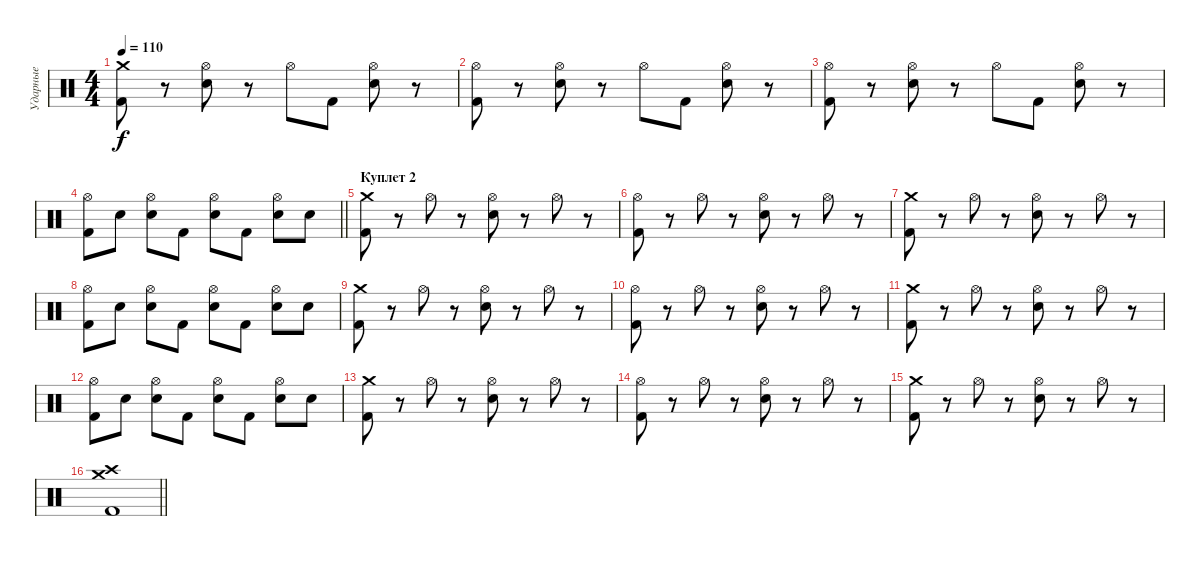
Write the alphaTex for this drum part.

\track ("Ударные" "Ударные") {instrument percussion}
\staff {score}
\articulation defaults
\ts (4 4)
\tempo 110
\clef neutral
\ks c
("Crash medium (hit)" "Kick (hit) 2").8{dy f} r.8 ("Hi-Hat (open)" "Snare (hit) 2").8 r.8 "Hi-Hat (open)".8 "Kick (hit) 2".8 ("Hi-Hat (open)" "Snare (hit) 2").8 r.8 |
("Hi-Hat (open)" "Kick (hit) 2").8 r.8 ("Hi-Hat (open)" "Snare (hit) 2").8 r.8 "Hi-Hat (open)".8 "Kick (hit) 2".8 ("Hi-Hat (open)" "Snare (hit) 2").8 r.8 |
("Hi-Hat (open)" "Kick (hit) 2").8 r.8 ("Hi-Hat (open)" "Snare (hit) 2").8 r.8 "Hi-Hat (open)".8 "Kick (hit) 2".8 ("Hi-Hat (open)" "Snare (hit) 2").8 r.8 |
\barLineRight lightlight
("Hi-Hat (open)" "Kick (hit) 2").8 "Snare (hit) 2".8 ("Hi-Hat (open)" "Snare (hit) 2").8 "Kick (hit) 2".8 ("Hi-Hat (open)" "Snare (hit) 2").8 "Kick (hit) 2".8 ("Hi-Hat (open)" "Snare (hit) 2").8 "Snare (hit) 2".8 |
\section ("" "Куплет 2")
("Crash medium (hit)" "Kick (hit) 2").8 r.8 "Hi-Hat (open)".8 r.8 ("Hi-Hat (open)" "Snare (hit) 2").8 r.8 "Hi-Hat (open)".8 r.8 |
("Hi-Hat (open)" "Kick (hit) 2").8 r.8 "Hi-Hat (open)".8 r.8 ("Hi-Hat (open)" "Snare (hit) 2").8 r.8 "Hi-Hat (open)".8 r.8 |
("Crash medium (hit)" "Kick (hit) 2").8 r.8 "Hi-Hat (open)".8 r.8 ("Hi-Hat (open)" "Snare (hit) 2").8 r.8 "Hi-Hat (open)".8 r.8 |
("Hi-Hat (open)" "Kick (hit) 2").8 "Snare (hit) 2".8 ("Hi-Hat (open)" "Snare (hit) 2").8 "Kick (hit) 2".8 ("Hi-Hat (open)" "Snare (hit) 2").8 "Kick (hit) 2".8 ("Hi-Hat (open)" "Snare (hit) 2").8 "Snare (hit) 2".8 |
("Crash medium (hit)" "Kick (hit) 2").8 r.8 "Hi-Hat (open)".8 r.8 ("Hi-Hat (open)" "Snare (hit) 2").8 r.8 "Hi-Hat (open)".8 r.8 |
("Hi-Hat (open)" "Kick (hit) 2").8 r.8 "Hi-Hat (open)".8 r.8 ("Hi-Hat (open)" "Snare (hit) 2").8 r.8 "Hi-Hat (open)".8 r.8 |
("Crash medium (hit)" "Kick (hit) 2").8 r.8 "Hi-Hat (open)".8 r.8 ("Hi-Hat (open)" "Snare (hit) 2").8 r.8 "Hi-Hat (open)".8 r.8 |
("Hi-Hat (open)" "Kick (hit) 2").8 "Snare (hit) 2".8 ("Hi-Hat (open)" "Snare (hit) 2").8 "Kick (hit) 2".8 ("Hi-Hat (open)" "Snare (hit) 2").8 "Kick (hit) 2".8 ("Hi-Hat (open)" "Snare (hit) 2").8 "Snare (hit) 2".8 |
("Crash medium (hit)" "Kick (hit) 2").8 r.8 "Hi-Hat (open)".8 r.8 ("Hi-Hat (open)" "Snare (hit) 2").8 r.8 "Hi-Hat (open)".8 r.8 |
("Hi-Hat (open)" "Kick (hit) 2").8 r.8 "Hi-Hat (open)".8 r.8 ("Hi-Hat (open)" "Snare (hit) 2").8 r.8 "Hi-Hat (open)".8 r.8 |
("Crash medium (hit)" "Kick (hit) 2").8 r.8 "Hi-Hat (open)".8 r.8 ("Hi-Hat (open)" "Snare (hit) 2").8 r.8 "Hi-Hat (open)".8 r.8 |
\barLineRight lightlight
("Crash medium (hit)" "Crash high (hit)" "Kick (hit) 2").1
